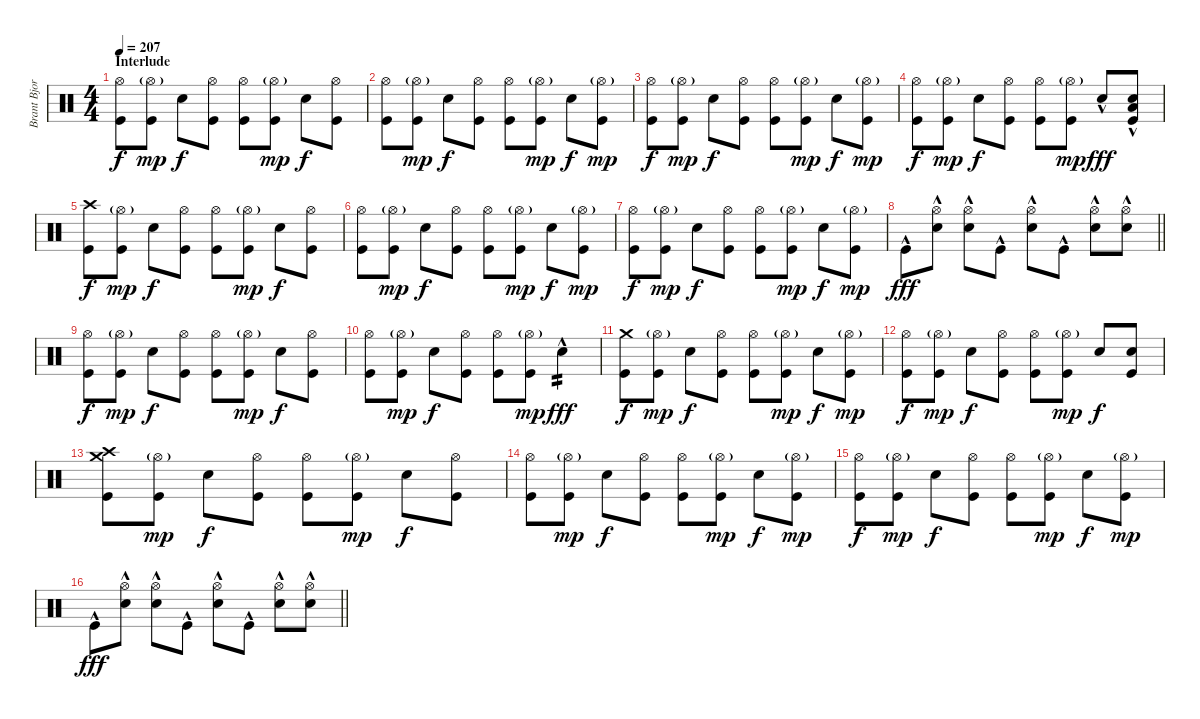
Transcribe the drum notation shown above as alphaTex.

\track ("Brant Bjork - Drums" "Brant Bjor") {instrument percussion}
\staff {score}
\articulation defaults
\ts (4 4)
\section ("" "Interlude")
\tempo 207
\clef neutral
\ks c
("Hi-Hat (open)" "Kick (hit)").8{dy f} ("Hi-Hat (open)"{g} "Kick (hit)").8{dy mp} "Snare (hit) 2".8{dy f} ("Hi-Hat (open)" "Kick (hit)").8 ("Hi-Hat (open)" "Kick (hit)").8 ("Hi-Hat (open)"{g} "Kick (hit)").8{dy mp} "Snare (hit) 2".8{dy f} ("Hi-Hat (open)" "Kick (hit)").8 |
("Hi-Hat (open)" "Kick (hit)").8 ("Hi-Hat (open)"{g} "Kick (hit)").8{dy mp} "Snare (hit) 2".8{dy f} ("Hi-Hat (open)" "Kick (hit)").8 ("Hi-Hat (open)" "Kick (hit)").8 ("Hi-Hat (open)"{g} "Kick (hit)").8{dy mp} "Snare (hit) 2".8{dy f} ("Hi-Hat (open)"{g} "Kick (hit)").8{dy mp} |
("Hi-Hat (open)" "Kick (hit)").8{dy f} ("Hi-Hat (open)"{g} "Kick (hit)").8{dy mp} "Snare (hit) 2".8{dy f} ("Hi-Hat (open)" "Kick (hit)").8 ("Hi-Hat (open)" "Kick (hit)").8 ("Hi-Hat (open)"{g} "Kick (hit)").8{dy mp} "Snare (hit) 2".8{dy f} ("Hi-Hat (open)"{g} "Kick (hit)").8{dy mp} |
("Hi-Hat (open)" "Kick (hit)").8{dy f} ("Hi-Hat (open)"{g} "Kick (hit)").8{dy mp} "Snare (hit) 2".8{dy f} ("Hi-Hat (open)" "Kick (hit)").8 ("Hi-Hat (open)" "Kick (hit)").8 ("Hi-Hat (open)"{g} "Kick (hit)").8{dy mp} "Snare (hit) 2"{hac}.8{dy fff} ("Snare (hit) 2"{hac} "Low Tom (hit)" "Kick (hit)").8 |
("Crash high (hit)" "Kick (hit)").8{dy f} ("Hi-Hat (open)"{g} "Kick (hit)").8{dy mp} "Snare (hit) 2".8{dy f} ("Hi-Hat (open)" "Kick (hit)").8 ("Hi-Hat (open)" "Kick (hit)").8 ("Hi-Hat (open)"{g} "Kick (hit)").8{dy mp} "Snare (hit) 2".8{dy f} ("Hi-Hat (open)" "Kick (hit)").8 |
("Hi-Hat (open)" "Kick (hit)").8 ("Hi-Hat (open)"{g} "Kick (hit)").8{dy mp} "Snare (hit) 2".8{dy f} ("Hi-Hat (open)" "Kick (hit)").8 ("Hi-Hat (open)" "Kick (hit)").8 ("Hi-Hat (open)"{g} "Kick (hit)").8{dy mp} "Snare (hit) 2".8{dy f} ("Hi-Hat (open)"{g} "Kick (hit)").8{dy mp} |
("Hi-Hat (open)" "Kick (hit)").8{dy f} ("Hi-Hat (open)"{g} "Kick (hit)").8{dy mp} "Snare (hit) 2".8{dy f} ("Hi-Hat (open)" "Kick (hit)").8 ("Hi-Hat (open)" "Kick (hit)").8 ("Hi-Hat (open)"{g} "Kick (hit)").8{dy mp} "Snare (hit) 2".8{dy f} ("Hi-Hat (open)"{g} "Kick (hit)").8{dy mp} |
\barLineRight lightlight "Kick (hit)"{hac}.8{dy fff}
("Hi-Hat (open)" "Snare (hit) 2"{hac}).8 ("Hi-Hat (open)" "Snare (hit) 2"{hac}).8 "Kick (hit)"{hac}.8 ("Hi-Hat (open)" "Snare (hit) 2"{hac}).8 "Kick (hit)"{hac}.8 ("Hi-Hat (open)" "Snare (hit) 2"{hac}).8 ("Hi-Hat (open)" "Snare (hit) 2"{hac}).8 |
("Hi-Hat (open)" "Kick (hit)").8{dy f} ("Hi-Hat (open)"{g} "Kick (hit)").8{dy mp} "Snare (hit) 2".8{dy f} ("Hi-Hat (open)" "Kick (hit)").8 ("Hi-Hat (open)" "Kick (hit)").8 ("Hi-Hat (open)"{g} "Kick (hit)").8{dy mp} "Snare (hit) 2".8{dy f} ("Hi-Hat (open)" "Kick (hit)").8 |
("Hi-Hat (open)" "Kick (hit)").8 ("Hi-Hat (open)"{g} "Kick (hit)").8{dy mp} "Snare (hit) 2".8{dy f} ("Hi-Hat (open)" "Kick (hit)").8 ("Hi-Hat (open)" "Kick (hit)").8 ("Hi-Hat (open)"{g} "Kick (hit)").8{dy mp} "Snare (hit) 2"{hac}.4{tp 2 dy fff} |
("Crash medium (hit)" "Kick (hit)").8{dy f} ("Hi-Hat (open)"{g} "Kick (hit)").8{dy mp} "Snare (hit) 2".8{dy f} ("Hi-Hat (open)" "Kick (hit)").8 ("Hi-Hat (open)" "Kick (hit)").8 ("Hi-Hat (open)"{g} "Kick (hit)").8{dy mp} "Snare (hit) 2".8{dy f} ("Hi-Hat (open)"{g} "Kick (hit)").8{dy mp} |
("Hi-Hat (open)" "Kick (hit)").8{dy f} ("Hi-Hat (open)"{g} "Kick (hit)").8{dy mp} "Snare (hit) 2".8{dy f} ("Hi-Hat (open)" "Kick (hit)").8 ("Hi-Hat (open)" "Kick (hit)").8 ("Hi-Hat (open)"{g} "Kick (hit)").8{dy mp} "Snare (hit) 2".8{dy f} ("Snare (hit) 2" "Kick (hit)").8 |
("Crash high (hit)" "Crash medium (hit)" "Kick (hit)").8 ("Hi-Hat (open)"{g} "Kick (hit)").8{dy mp} "Snare (hit) 2".8{dy f} ("Hi-Hat (open)" "Kick (hit)").8 ("Hi-Hat (open)" "Kick (hit)").8 ("Hi-Hat (open)"{g} "Kick (hit)").8{dy mp} "Snare (hit) 2".8{dy f} ("Hi-Hat (open)" "Kick (hit)").8 |
("Hi-Hat (open)" "Kick (hit)").8 ("Hi-Hat (open)"{g} "Kick (hit)").8{dy mp} "Snare (hit) 2".8{dy f} ("Hi-Hat (open)" "Kick (hit)").8 ("Hi-Hat (open)" "Kick (hit)").8 ("Hi-Hat (open)"{g} "Kick (hit)").8{dy mp} "Snare (hit) 2".8{dy f} ("Hi-Hat (open)"{g} "Kick (hit)").8{dy mp} |
("Hi-Hat (open)" "Kick (hit)").8{dy f} ("Hi-Hat (open)"{g} "Kick (hit)").8{dy mp} "Snare (hit) 2".8{dy f} ("Hi-Hat (open)" "Kick (hit)").8 ("Hi-Hat (open)" "Kick (hit)").8 ("Hi-Hat (open)"{g} "Kick (hit)").8{dy mp} "Snare (hit) 2".8{dy f} ("Hi-Hat (open)"{g} "Kick (hit)").8{dy mp} |
\barLineRight lightlight "Kick (hit)"{hac}.8{dy fff}
("Hi-Hat (open)" "Snare (hit) 2"{hac}).8 ("Hi-Hat (open)" "Snare (hit) 2"{hac}).8 "Kick (hit)"{hac}.8 ("Hi-Hat (open)" "Snare (hit) 2"{hac}).8 "Kick (hit)"{hac}.8 ("Hi-Hat (open)" "Snare (hit) 2"{hac}).8 ("Hi-Hat (open)" "Snare (hit) 2"{hac}).8
